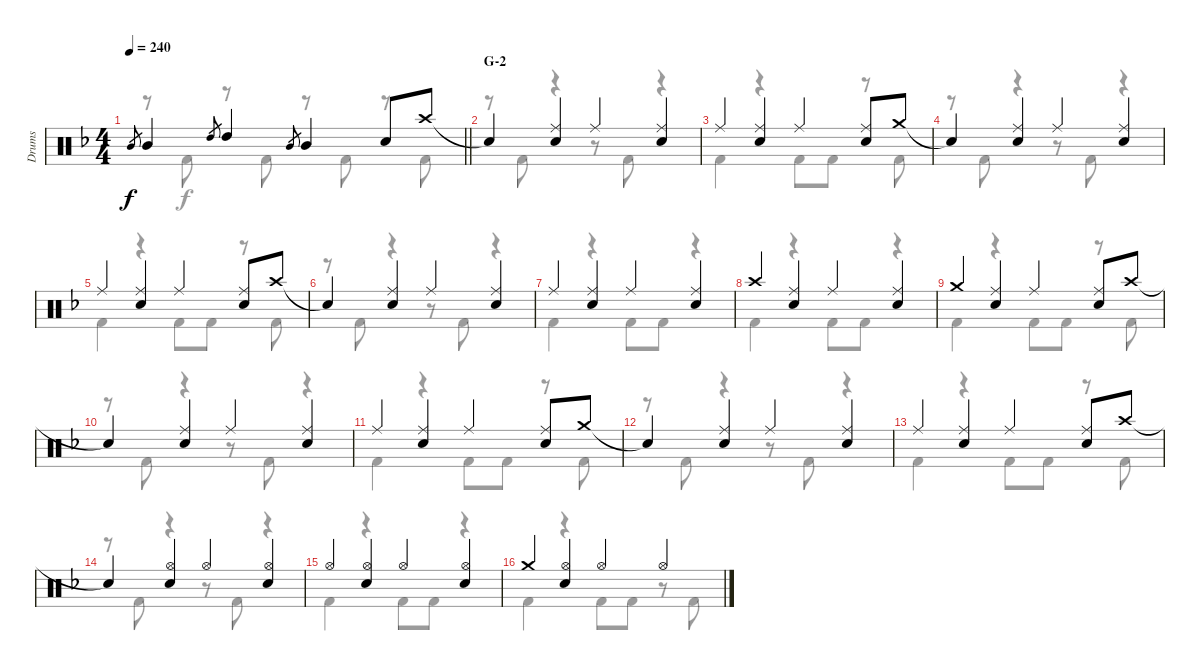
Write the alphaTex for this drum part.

\track ("Drums" "Drums") {instrument percussion}
\staff {score}
\articulation defaults
\voice
\ts (4 4)
\tempo 240
\clef neutral
\barLineRight lightlight
\ks f "Mid Tom (hit)".8{gr dy f} "Mid Tom (hit)".4 "High Tom (hit)".8{gr} "High Tom (hit)".4 "Mid Tom (hit)".8{gr} "Mid Tom (hit)".4 "Snare (hit) 2".8 "Crash high (hit)".8
|
\section ("" "G-2")
"Snare (hit)"{t}.4 ("Ride (middle)" "Snare (hit) 2").4 "Ride (middle)".4 ("Ride (middle)" "Snare (hit) 2").4 |
"Ride (middle)".4 ("Ride (middle)" "Snare (hit) 2").4 "Ride (middle)".4 ("Ride (middle)" "Snare (hit) 2").8 "Crash medium (hit)".8 |
"Snare (hit)"{t}.4 ("Ride (middle)" "Snare (hit) 2").4 "Ride (middle)".4 ("Ride (middle)" "Snare (hit) 2").4 |
"Ride (middle)".4 ("Ride (middle)" "Snare (hit) 2").4 "Ride (middle)".4 ("Ride (middle)" "Snare (hit) 2").8 "Crash high (hit)".8 |
"Snare (hit)"{t}.4 ("Ride (middle)" "Snare (hit) 2").4 "Ride (middle)".4 ("Ride (middle)" "Snare (hit) 2").4 |
"Ride (middle)".4 ("Ride (middle)" "Snare (hit) 2").4 "Ride (middle)".4 ("Ride (middle)" "Snare (hit) 2").4 |
"Crash high (hit)".4 ("Ride (middle)" "Snare (hit) 2").4 "Ride (middle)".4 ("Ride (middle)" "Snare (hit) 2").4 |
"Crash medium (hit)".4 ("Ride (middle)" "Snare (hit) 2").4 "Ride (middle)".4 ("Ride (middle)" "Snare (hit) 2").8 "Crash high (hit)".8 |
"Snare (hit)"{t}.4 ("Ride (middle)" "Snare (hit) 2").4 "Ride (middle)".4 ("Ride (middle)" "Snare (hit) 2").4 |
"Ride (middle)".4 ("Ride (middle)" "Snare (hit) 2").4 "Ride (middle)".4 ("Ride (middle)" "Snare (hit) 2").8 "Crash medium (hit)".8 |
"Snare (hit)"{t}.4 ("Ride (middle)" "Snare (hit) 2").4 "Ride (middle)".4 ("Ride (middle)" "Snare (hit) 2").4 |
"Ride (middle)".4 ("Ride (middle)" "Snare (hit) 2").4 "Ride (middle)".4 ("Ride (middle)" "Snare (hit) 2").8 "Crash high (hit)".8 |
"Snare (hit)"{t}.4 ("Hi-Hat (open)" "Snare (hit) 2").4 "Hi-Hat (open)".4 ("Hi-Hat (open)" "Snare (hit) 2").4 |
"Hi-Hat (open)".4 ("Hi-Hat (open)" "Snare (hit) 2").4 "Hi-Hat (open)".4 ("Hi-Hat (open)" "Snare (hit) 2").4 |
"Crash medium (hit)".4 ("Hi-Hat (open)" "Snare (hit) 2").4 "Hi-Hat (open)".4 "Hi-Hat (open)".4
\voice
\clef neutral
\ottava regular
\simile none
\barLineRight lightlight
\ks f
r.8{dy f} "Kick (hit) 2".8 r.8 "Kick (hit) 2".8 r.8 "Kick (hit) 2".8 r.8 "Kick (hit) 2".8 |
r.8 "Kick (hit) 2".8 r.4 r.8 "Kick (hit) 2".8 r.4 |
"Kick (hit) 2".4 r.4 "Kick (hit) 2".8 "Kick (hit) 2".8 r.8 "Kick (hit) 2".8 |
r.8 "Kick (hit) 2".8 r.4 r.8 "Kick (hit) 2".8 r.4 |
"Kick (hit) 2".4 r.4 "Kick (hit) 2".8 "Kick (hit) 2".8 r.8 "Kick (hit) 2".8 |
r.8 "Kick (hit) 2".8 r.4 r.8 "Kick (hit) 2".8 r.4 |
"Kick (hit) 2".4 r.4 "Kick (hit) 2".8 "Kick (hit) 2".8 r.4 |
"Kick (hit) 2".4 r.4 "Kick (hit) 2".8 "Kick (hit) 2".8 r.4 |
"Kick (hit) 2".4 r.4 "Kick (hit) 2".8 "Kick (hit) 2".8 r.8 "Kick (hit) 2".8 |
r.8 "Kick (hit) 2".8 r.4 r.8 "Kick (hit) 2".8 r.4 |
"Kick (hit) 2".4 r.4 "Kick (hit) 2".8 "Kick (hit) 2".8 r.8 "Kick (hit) 2".8 |
r.8 "Kick (hit) 2".8 r.4 r.8 "Kick (hit) 2".8 r.4 |
"Kick (hit) 2".4 r.4 "Kick (hit) 2".8 "Kick (hit) 2".8 r.8 "Kick (hit) 2".8 |
r.8 "Kick (hit) 2".8 r.4 r.8 "Kick (hit) 2".8 r.4 |
"Kick (hit) 2".4 r.4 "Kick (hit) 2".8 "Kick (hit) 2".8 r.4 |
"Kick (hit) 2".4 r.4 "Kick (hit) 2".8 "Kick (hit) 2".8 r.8 "Kick (hit) 2".8
